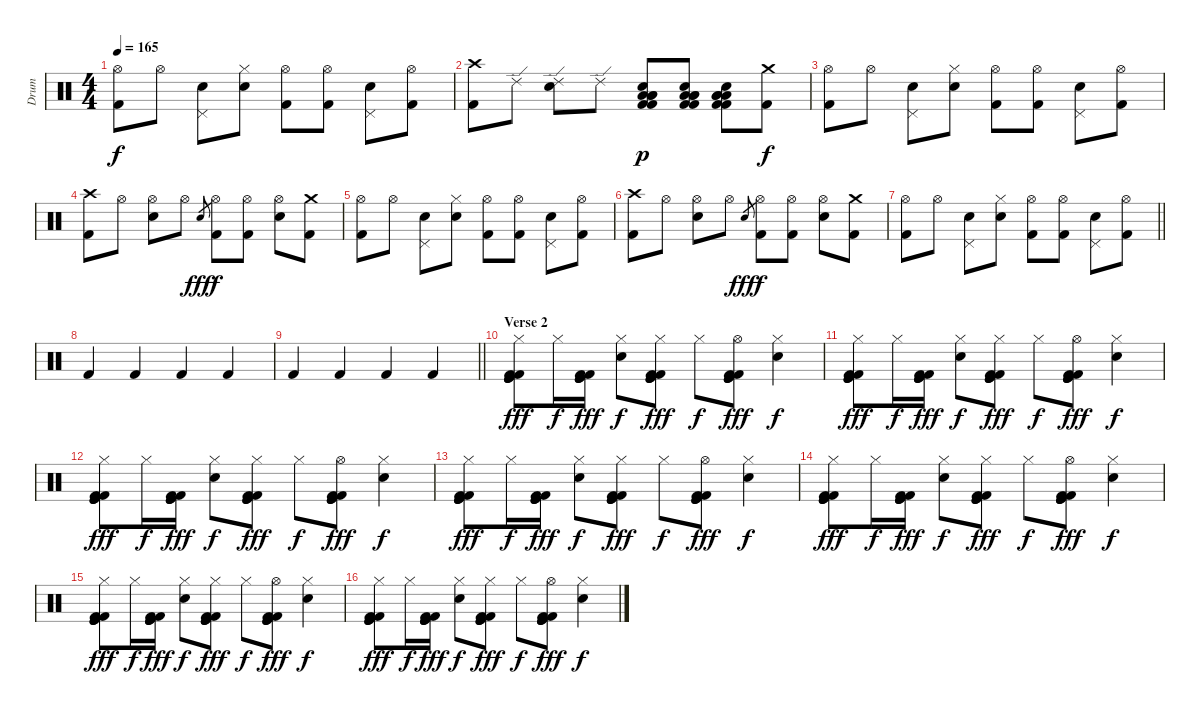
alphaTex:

\track ("Drum" "Drum") {instrument percussion}
\staff {score}
\articulation defaults
\ts (4 4)
\tempo 165
\clef neutral
\ks c
("Hi-Hat (open)" "Kick (hit) 2").8{dy f} "Hi-Hat (open)".8 ("Pedal Hi-Hat (hit)" "Electric Snare (hit)").8 ("Hi-Hat (closed)" "Electric Snare (hit)").8 ("Hi-Hat (open)" "Kick (hit) 2").8 ("Hi-Hat (open)" "Kick (hit) 2").8 ("Pedal Hi-Hat (hit)" "Electric Snare (hit)").8 ("Hi-Hat (open)" "Kick (hit) 2").8 |
("Crash high (hit)" "Kick (hit) 2").8 "Ride (edge) 2".8 ("Ride (edge) 2" "Electric Snare (hit)").8 "Ride (edge) 2".8 ("Low Tom (hit)" "Low Floor Tom (hit)" "Low Floor Tom (hit)" "Kick (hit) 2" "Snare (hit) 2" "Kick (hit) 2").8{dy p} ("Low Tom (hit)" "Low Floor Tom (hit)" "Low Floor Tom (hit)" "Kick (hit) 2" "Snare (hit) 2" "Kick (hit) 2").8 ("Low Tom (hit)" "Low Floor Tom (hit)" "Low Floor Tom (hit)" "Kick (hit) 2" "Snare (hit) 2" "Kick (hit) 2").8 ("Crash medium (hit)" "Kick (hit) 2").8{dy f} |
("Hi-Hat (open)" "Kick (hit) 2").8 "Hi-Hat (open)".8 ("Pedal Hi-Hat (hit)" "Electric Snare (hit)").8 ("Hi-Hat (closed)" "Electric Snare (hit)").8 ("Hi-Hat (open)" "Kick (hit) 2").8 ("Hi-Hat (open)" "Kick (hit) 2").8 ("Pedal Hi-Hat (hit)" "Electric Snare (hit)").8 ("Hi-Hat (open)" "Kick (hit) 2").8 |
("Crash high (hit)" "Kick (hit) 2").8 "Hi-Hat (open)".8 ("Hi-Hat (open)" "Electric Snare (hit)").8 "Hi-Hat (open)".8 "Electric Snare (hit)".8{gr dy fff} ("Hi-Hat (open)" "Kick (hit) 2").8{dy f} ("Hi-Hat (open)" "Kick (hit) 2").8 ("Hi-Hat (open)" "Electric Snare (hit)").8 ("Crash medium (hit)" "Kick (hit) 2").8 |
("Hi-Hat (open)" "Kick (hit) 2").8 "Hi-Hat (open)".8 ("Pedal Hi-Hat (hit)" "Electric Snare (hit)").8 ("Hi-Hat (closed)" "Electric Snare (hit)").8 ("Hi-Hat (open)" "Kick (hit) 2").8 ("Hi-Hat (open)" "Kick (hit) 2").8 ("Pedal Hi-Hat (hit)" "Electric Snare (hit)").8 ("Hi-Hat (open)" "Kick (hit) 2").8 |
("Crash high (hit)" "Kick (hit) 2").8 "Hi-Hat (open)".8 ("Hi-Hat (open)" "Electric Snare (hit)").8 "Hi-Hat (open)".8 "Electric Snare (hit)".8{gr dy fff} ("Hi-Hat (open)" "Kick (hit) 2").8{dy f} ("Hi-Hat (open)" "Kick (hit) 2").8 ("Hi-Hat (open)" "Electric Snare (hit)").8 ("Crash medium (hit)" "Kick (hit) 2").8 |
\barLineRight lightlight
("Hi-Hat (open)" "Kick (hit) 2").8 "Hi-Hat (open)".8 ("Pedal Hi-Hat (hit)" "Electric Snare (hit)").8 ("Hi-Hat (closed)" "Electric Snare (hit)").8 ("Hi-Hat (open)" "Kick (hit) 2").8 ("Hi-Hat (open)" "Kick (hit) 2").8 ("Pedal Hi-Hat (hit)" "Electric Snare (hit)").8 ("Hi-Hat (open)" "Kick (hit) 2").8 |
"Kick (hit) 2".4 "Kick (hit) 2".4 "Kick (hit) 2".4 "Kick (hit) 2".4 |
\barLineRight lightlight "Kick (hit) 2".4 "Kick (hit) 2".4 "Kick (hit) 2".4 "Kick (hit) 2".4
|
\section ("" "Verse 2")
("Hi-Hat (closed)" "Kick (hit)" "Kick (hit)" "Kick (hit)" "Kick (hit) 2" "Kick (hit) 2").8{dy fff} "Hi-Hat (closed)".16{dy f} ("Kick (hit)" "Kick (hit)" "Kick (hit)" "Kick (hit) 2" "Kick (hit) 2").16{dy fff} ("Hi-Hat (closed)" "Electric Snare (hit)").8{dy f} ("Hi-Hat (closed)" "Kick (hit)" "Kick (hit)" "Kick (hit)" "Kick (hit) 2" "Kick (hit) 2").8{dy fff} "Hi-Hat (closed)".8{dy f} ("Hi-Hat (open)" "Kick (hit)" "Kick (hit)" "Kick (hit)" "Kick (hit) 2" "Kick (hit) 2").8{dy fff} ("Hi-Hat (closed)" "Electric Snare (hit)").4{dy f} |
("Hi-Hat (closed)" "Kick (hit)" "Kick (hit)" "Kick (hit)" "Kick (hit) 2" "Kick (hit) 2").8{dy fff} "Hi-Hat (closed)".16{dy f} ("Kick (hit)" "Kick (hit)" "Kick (hit)" "Kick (hit) 2" "Kick (hit) 2").16{dy fff} ("Hi-Hat (closed)" "Electric Snare (hit)").8{dy f} ("Hi-Hat (closed)" "Kick (hit)" "Kick (hit)" "Kick (hit)" "Kick (hit) 2" "Kick (hit) 2").8{dy fff} "Hi-Hat (closed)".8{dy f} ("Hi-Hat (open)" "Kick (hit)" "Kick (hit)" "Kick (hit)" "Kick (hit) 2" "Kick (hit) 2").8{dy fff} ("Hi-Hat (closed)" "Electric Snare (hit)").4{dy f} |
("Hi-Hat (closed)" "Kick (hit)" "Kick (hit)" "Kick (hit)" "Kick (hit) 2" "Kick (hit) 2").8{dy fff} "Hi-Hat (closed)".16{dy f} ("Kick (hit)" "Kick (hit)" "Kick (hit)" "Kick (hit) 2" "Kick (hit) 2").16{dy fff} ("Hi-Hat (closed)" "Electric Snare (hit)").8{dy f} ("Hi-Hat (closed)" "Kick (hit)" "Kick (hit)" "Kick (hit)" "Kick (hit) 2" "Kick (hit) 2").8{dy fff} "Hi-Hat (closed)".8{dy f} ("Hi-Hat (open)" "Kick (hit)" "Kick (hit)" "Kick (hit)" "Kick (hit) 2" "Kick (hit) 2").8{dy fff} ("Hi-Hat (closed)" "Electric Snare (hit)").4{dy f} |
("Hi-Hat (closed)" "Kick (hit)" "Kick (hit)" "Kick (hit)" "Kick (hit) 2" "Kick (hit) 2").8{dy fff} "Hi-Hat (closed)".16{dy f} ("Kick (hit)" "Kick (hit)" "Kick (hit)" "Kick (hit) 2" "Kick (hit) 2").16{dy fff} ("Hi-Hat (closed)" "Electric Snare (hit)").8{dy f} ("Hi-Hat (closed)" "Kick (hit)" "Kick (hit)" "Kick (hit)" "Kick (hit) 2" "Kick (hit) 2").8{dy fff} "Hi-Hat (closed)".8{dy f} ("Hi-Hat (open)" "Kick (hit)" "Kick (hit)" "Kick (hit)" "Kick (hit) 2" "Kick (hit) 2").8{dy fff} ("Hi-Hat (closed)" "Electric Snare (hit)").4{dy f} |
("Hi-Hat (closed)" "Kick (hit)" "Kick (hit)" "Kick (hit)" "Kick (hit) 2" "Kick (hit) 2").8{dy fff} "Hi-Hat (closed)".16{dy f} ("Kick (hit)" "Kick (hit)" "Kick (hit)" "Kick (hit) 2" "Kick (hit) 2").16{dy fff} ("Hi-Hat (closed)" "Electric Snare (hit)").8{dy f} ("Hi-Hat (closed)" "Kick (hit)" "Kick (hit)" "Kick (hit)" "Kick (hit) 2" "Kick (hit) 2").8{dy fff} "Hi-Hat (closed)".8{dy f} ("Hi-Hat (open)" "Kick (hit)" "Kick (hit)" "Kick (hit)" "Kick (hit) 2" "Kick (hit) 2").8{dy fff} ("Hi-Hat (closed)" "Electric Snare (hit)").4{dy f} |
("Hi-Hat (closed)" "Kick (hit)" "Kick (hit)" "Kick (hit)" "Kick (hit) 2" "Kick (hit) 2").8{dy fff} "Hi-Hat (closed)".16{dy f} ("Kick (hit)" "Kick (hit)" "Kick (hit)" "Kick (hit) 2" "Kick (hit) 2").16{dy fff} ("Hi-Hat (closed)" "Electric Snare (hit)").8{dy f} ("Hi-Hat (closed)" "Kick (hit)" "Kick (hit)" "Kick (hit)" "Kick (hit) 2" "Kick (hit) 2").8{dy fff} "Hi-Hat (closed)".8{dy f} ("Hi-Hat (open)" "Kick (hit)" "Kick (hit)" "Kick (hit)" "Kick (hit) 2" "Kick (hit) 2").8{dy fff} ("Hi-Hat (closed)" "Electric Snare (hit)").4{dy f} |
("Hi-Hat (closed)" "Kick (hit)" "Kick (hit)" "Kick (hit)" "Kick (hit) 2" "Kick (hit) 2").8{dy fff} "Hi-Hat (closed)".16{dy f} ("Kick (hit)" "Kick (hit)" "Kick (hit)" "Kick (hit) 2" "Kick (hit) 2").16{dy fff} ("Hi-Hat (closed)" "Electric Snare (hit)").8{dy f} ("Hi-Hat (closed)" "Kick (hit)" "Kick (hit)" "Kick (hit)" "Kick (hit) 2" "Kick (hit) 2").8{dy fff} "Hi-Hat (closed)".8{dy f} ("Hi-Hat (open)" "Kick (hit)" "Kick (hit)" "Kick (hit)" "Kick (hit) 2" "Kick (hit) 2").8{dy fff} ("Hi-Hat (closed)" "Electric Snare (hit)").4{dy f}
